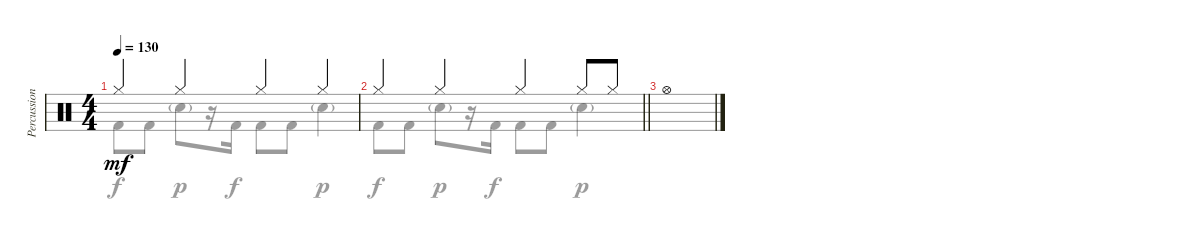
\track ("Percussion" "Percussion") {instrument percussion}
\staff {score}
\articulation defaults
\voice
\ts (4 4)
\tempo 130
\clef neutral
\ks c "Hi-Hat (closed)".4{dy mf} "Hi-Hat (closed)".4 "Hi-Hat (closed)".4 "Hi-Hat (closed)".4
|
\barLineRight lightlight "Hi-Hat (closed)".4 "Hi-Hat (closed)".4 "Hi-Hat (closed)".4 "Hi-Hat (closed)".8 "Hi-Hat (closed)".8
|
"Hi-Hat (open)".1 |
|
|
\voice
\clef neutral
\ottava regular
\simile none
\ks c "Kick (hit) 2".8{dy f} "Kick (hit) 2".8 "Electric Snare (hit)"{g}.8{dy p}
r.16 "Kick (hit) 2".16{dy f} "Kick (hit) 2".8 "Kick (hit) 2".8 "Electric Snare (hit)"{g}.4{dy p} |
\barLineRight lightlight "Kick (hit) 2".8{dy f} "Kick (hit) 2".8 "Electric Snare (hit)"{g}.8{dy p}
r.16 "Kick (hit) 2".16{dy f} "Kick (hit) 2".8 "Kick (hit) 2".8 "Electric Snare (hit)"{g}.4{dy p} |
|
|
|
